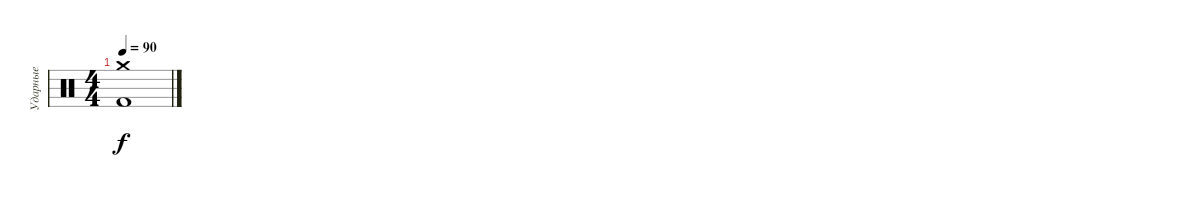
\track ("Ударные" "Ударные") {instrument percussion}
\staff {score}
\articulation defaults
\ts (4 4)
\tempo 90
\clef neutral
\ks c
("Crash medium (hit)" "Kick (hit) 2").1{dy f}
